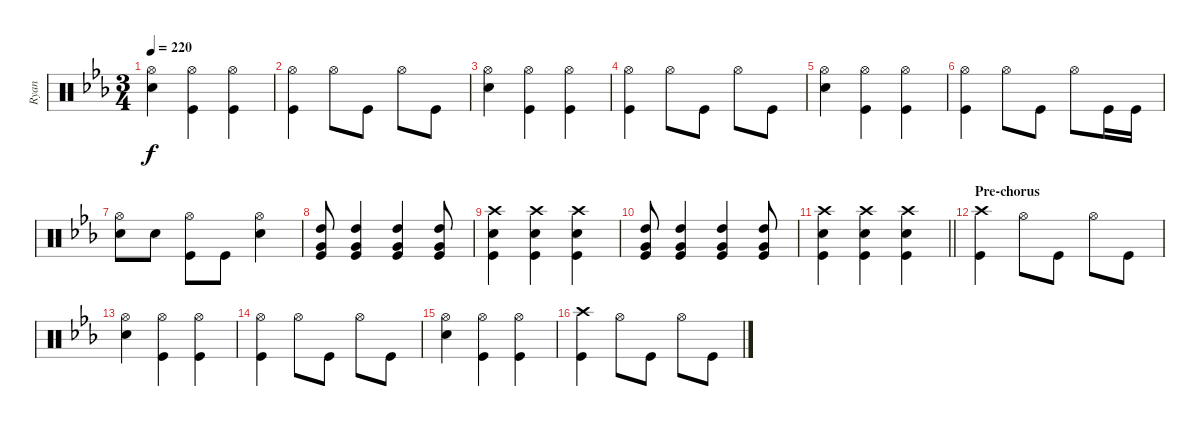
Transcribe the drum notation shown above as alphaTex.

\track ("Ryan" "Ryan") {instrument percussion}
\staff {score}
\articulation defaults
\ts (3 4)
\tempo 220
\clef neutral
\ks cminor
("Snare (hit) 2" "Hi-Hat (open)").4{dy f} ("Kick (hit)" "Hi-Hat (open)").4 ("Kick (hit)" "Hi-Hat (open)").4 |
("Kick (hit)" "Hi-Hat (open)").4 "Hi-Hat (open)".8 "Kick (hit)".8 "Hi-Hat (open)".8 "Kick (hit)".8 |
("Snare (hit) 2" "Hi-Hat (open)").4 ("Kick (hit)" "Hi-Hat (open)").4 ("Kick (hit)" "Hi-Hat (open)").4 |
("Kick (hit)" "Hi-Hat (open)").4 "Hi-Hat (open)".8 "Kick (hit)".8 "Hi-Hat (open)".8 "Kick (hit)".8 |
("Snare (hit) 2" "Hi-Hat (open)").4 ("Kick (hit)" "Hi-Hat (open)").4 ("Kick (hit)" "Hi-Hat (open)").4 |
("Kick (hit)" "Hi-Hat (open)").4 "Hi-Hat (open)".8 "Kick (hit)".8 "Hi-Hat (open)".8 "Kick (hit)".16 "Kick (hit)".16 |
("Hi-Hat (open)" "Snare (hit) 2").8 "Snare (hit) 2".8 ("Kick (hit)" "Hi-Hat (open)").8 "Kick (hit)".8 ("Hi-Hat (open)" "Snare (hit) 2").4 |
("Kick (hit)" "Very Low Tom (hit)" "High Tom (hit)").8 ("High Tom (hit)" "Very Low Tom (hit)" "Kick (hit)").4 ("Very Low Tom (hit)" "Kick (hit)" "High Tom (hit)").4 ("Kick (hit)" "Very Low Tom (hit)" "High Tom (hit)").8 |
("Kick (hit)" "Snare (hit) 2" "Crash high (hit)").4 ("Kick (hit)" "Snare (hit) 2" "Crash high (hit)").4 ("Crash high (hit)" "Snare (hit) 2" "Kick (hit)").4 |
("Kick (hit)" "Very Low Tom (hit)" "High Tom (hit)").8 ("High Tom (hit)" "Very Low Tom (hit)" "Kick (hit)").4 ("Very Low Tom (hit)" "Kick (hit)" "High Tom (hit)").4 ("Kick (hit)" "Very Low Tom (hit)" "High Tom (hit)").8 |
\barLineRight lightlight
("Kick (hit)" "Snare (hit) 2" "Crash high (hit)").4 ("Kick (hit)" "Snare (hit) 2" "Crash high (hit)").4 ("Crash high (hit)" "Snare (hit) 2" "Kick (hit)").4 |
\section ("" "Pre-chorus")
("Crash high (hit)" "Kick (hit)").4 "Hi-Hat (open)".8 "Kick (hit)".8 "Hi-Hat (open)".8 "Kick (hit)".8 |
("Snare (hit) 2" "Hi-Hat (open)").4 ("Kick (hit)" "Hi-Hat (open)").4 ("Kick (hit)" "Hi-Hat (open)").4 |
("Kick (hit)" "Hi-Hat (open)").4 "Hi-Hat (open)".8 "Kick (hit)".8 "Hi-Hat (open)".8 "Kick (hit)".8 |
("Snare (hit) 2" "Hi-Hat (open)").4 ("Kick (hit)" "Hi-Hat (open)").4 ("Kick (hit)" "Hi-Hat (open)").4 |
("Crash high (hit)" "Kick (hit)").4 "Hi-Hat (open)".8 "Kick (hit)".8 "Hi-Hat (open)".8 "Kick (hit)".8
